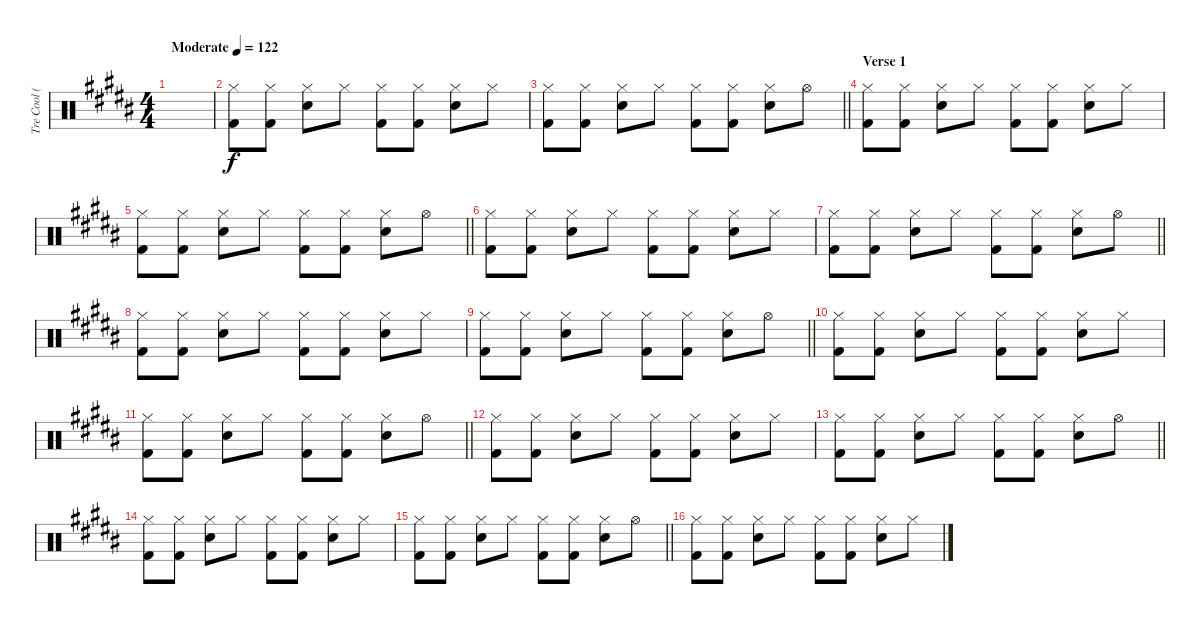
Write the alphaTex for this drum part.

\track ("Tre Cool (Drums)" "Tre Cool (") {instrument percussion}
\staff {score}
\articulation defaults
\ts (4 4)
\tempo (122 "Moderate")
\clef neutral
\ks b
|
("Hi-Hat (closed)" "Kick (hit) 2").8{volume 16} ("Hi-Hat (closed)" "Kick (hit) 2").8 ("Hi-Hat (closed)" "Electric Snare (hit)").8 "Hi-Hat (closed)".8 ("Hi-Hat (closed)" "Kick (hit) 2").8 ("Hi-Hat (closed)" "Kick (hit) 2").8 ("Hi-Hat (closed)" "Electric Snare (hit)").8 "Hi-Hat (closed)".8 |
\barLineRight lightlight
("Hi-Hat (closed)" "Kick (hit) 2").8 ("Hi-Hat (closed)" "Kick (hit) 2").8 ("Hi-Hat (closed)" "Electric Snare (hit)").8 "Hi-Hat (closed)".8 ("Hi-Hat (closed)" "Kick (hit) 2").8 ("Hi-Hat (closed)" "Kick (hit) 2").8 ("Hi-Hat (closed)" "Electric Snare (hit)").8 "Hi-Hat (open)".8 |
\section ("" "Verse 1")
("Hi-Hat (closed)" "Kick (hit) 2").8 ("Hi-Hat (closed)" "Kick (hit) 2").8 ("Hi-Hat (closed)" "Electric Snare (hit)").8 "Hi-Hat (closed)".8 ("Hi-Hat (closed)" "Kick (hit) 2").8 ("Hi-Hat (closed)" "Kick (hit) 2").8 ("Hi-Hat (closed)" "Electric Snare (hit)").8 "Hi-Hat (closed)".8 |
\barLineRight lightlight
("Hi-Hat (closed)" "Kick (hit) 2").8 ("Hi-Hat (closed)" "Kick (hit) 2").8 ("Hi-Hat (closed)" "Electric Snare (hit)").8 "Hi-Hat (closed)".8 ("Hi-Hat (closed)" "Kick (hit) 2").8 ("Hi-Hat (closed)" "Kick (hit) 2").8 ("Hi-Hat (closed)" "Electric Snare (hit)").8 "Hi-Hat (open)".8 |
("Hi-Hat (closed)" "Kick (hit) 2").8 ("Hi-Hat (closed)" "Kick (hit) 2").8 ("Hi-Hat (closed)" "Electric Snare (hit)").8 "Hi-Hat (closed)".8 ("Hi-Hat (closed)" "Kick (hit) 2").8 ("Hi-Hat (closed)" "Kick (hit) 2").8 ("Hi-Hat (closed)" "Electric Snare (hit)").8 "Hi-Hat (closed)".8 |
\barLineRight lightlight
("Hi-Hat (closed)" "Kick (hit) 2").8 ("Hi-Hat (closed)" "Kick (hit) 2").8 ("Hi-Hat (closed)" "Electric Snare (hit)").8 "Hi-Hat (closed)".8 ("Hi-Hat (closed)" "Kick (hit) 2").8 ("Hi-Hat (closed)" "Kick (hit) 2").8 ("Hi-Hat (closed)" "Electric Snare (hit)").8 "Hi-Hat (open)".8 |
("Hi-Hat (closed)" "Kick (hit) 2").8 ("Hi-Hat (closed)" "Kick (hit) 2").8 ("Hi-Hat (closed)" "Electric Snare (hit)").8 "Hi-Hat (closed)".8 ("Hi-Hat (closed)" "Kick (hit) 2").8 ("Hi-Hat (closed)" "Kick (hit) 2").8 ("Hi-Hat (closed)" "Electric Snare (hit)").8 "Hi-Hat (closed)".8 |
\barLineRight lightlight
("Hi-Hat (closed)" "Kick (hit) 2").8 ("Hi-Hat (closed)" "Kick (hit) 2").8 ("Hi-Hat (closed)" "Electric Snare (hit)").8 "Hi-Hat (closed)".8 ("Hi-Hat (closed)" "Kick (hit) 2").8 ("Hi-Hat (closed)" "Kick (hit) 2").8 ("Hi-Hat (closed)" "Electric Snare (hit)").8 "Hi-Hat (open)".8 |
("Hi-Hat (closed)" "Kick (hit) 2").8 ("Hi-Hat (closed)" "Kick (hit) 2").8 ("Hi-Hat (closed)" "Electric Snare (hit)").8 "Hi-Hat (closed)".8 ("Hi-Hat (closed)" "Kick (hit) 2").8 ("Hi-Hat (closed)" "Kick (hit) 2").8 ("Hi-Hat (closed)" "Electric Snare (hit)").8 "Hi-Hat (closed)".8 |
\barLineRight lightlight
("Hi-Hat (closed)" "Kick (hit) 2").8 ("Hi-Hat (closed)" "Kick (hit) 2").8 ("Hi-Hat (closed)" "Electric Snare (hit)").8 "Hi-Hat (closed)".8 ("Hi-Hat (closed)" "Kick (hit) 2").8 ("Hi-Hat (closed)" "Kick (hit) 2").8 ("Hi-Hat (closed)" "Electric Snare (hit)").8 "Hi-Hat (open)".8 |
("Hi-Hat (closed)" "Kick (hit) 2").8 ("Hi-Hat (closed)" "Kick (hit) 2").8 ("Hi-Hat (closed)" "Electric Snare (hit)").8 "Hi-Hat (closed)".8 ("Hi-Hat (closed)" "Kick (hit) 2").8 ("Hi-Hat (closed)" "Kick (hit) 2").8 ("Hi-Hat (closed)" "Electric Snare (hit)").8 "Hi-Hat (closed)".8 |
\barLineRight lightlight
("Hi-Hat (closed)" "Kick (hit) 2").8 ("Hi-Hat (closed)" "Kick (hit) 2").8 ("Hi-Hat (closed)" "Electric Snare (hit)").8 "Hi-Hat (closed)".8 ("Hi-Hat (closed)" "Kick (hit) 2").8 ("Hi-Hat (closed)" "Kick (hit) 2").8 ("Hi-Hat (closed)" "Electric Snare (hit)").8 "Hi-Hat (open)".8 |
("Hi-Hat (closed)" "Kick (hit) 2").8 ("Hi-Hat (closed)" "Kick (hit) 2").8 ("Hi-Hat (closed)" "Electric Snare (hit)").8 "Hi-Hat (closed)".8 ("Hi-Hat (closed)" "Kick (hit) 2").8 ("Hi-Hat (closed)" "Kick (hit) 2").8 ("Hi-Hat (closed)" "Electric Snare (hit)").8 "Hi-Hat (closed)".8 |
\barLineRight lightlight
("Hi-Hat (closed)" "Kick (hit) 2").8 ("Hi-Hat (closed)" "Kick (hit) 2").8 ("Hi-Hat (closed)" "Electric Snare (hit)").8 "Hi-Hat (closed)".8 ("Hi-Hat (closed)" "Kick (hit) 2").8 ("Hi-Hat (closed)" "Kick (hit) 2").8 ("Hi-Hat (closed)" "Electric Snare (hit)").8 "Hi-Hat (open)".8 |
("Hi-Hat (closed)" "Kick (hit) 2").8 ("Hi-Hat (closed)" "Kick (hit) 2").8 ("Hi-Hat (closed)" "Electric Snare (hit)").8 "Hi-Hat (closed)".8 ("Hi-Hat (closed)" "Kick (hit) 2").8 ("Hi-Hat (closed)" "Kick (hit) 2").8 ("Hi-Hat (closed)" "Electric Snare (hit)").8 "Hi-Hat (closed)".8
